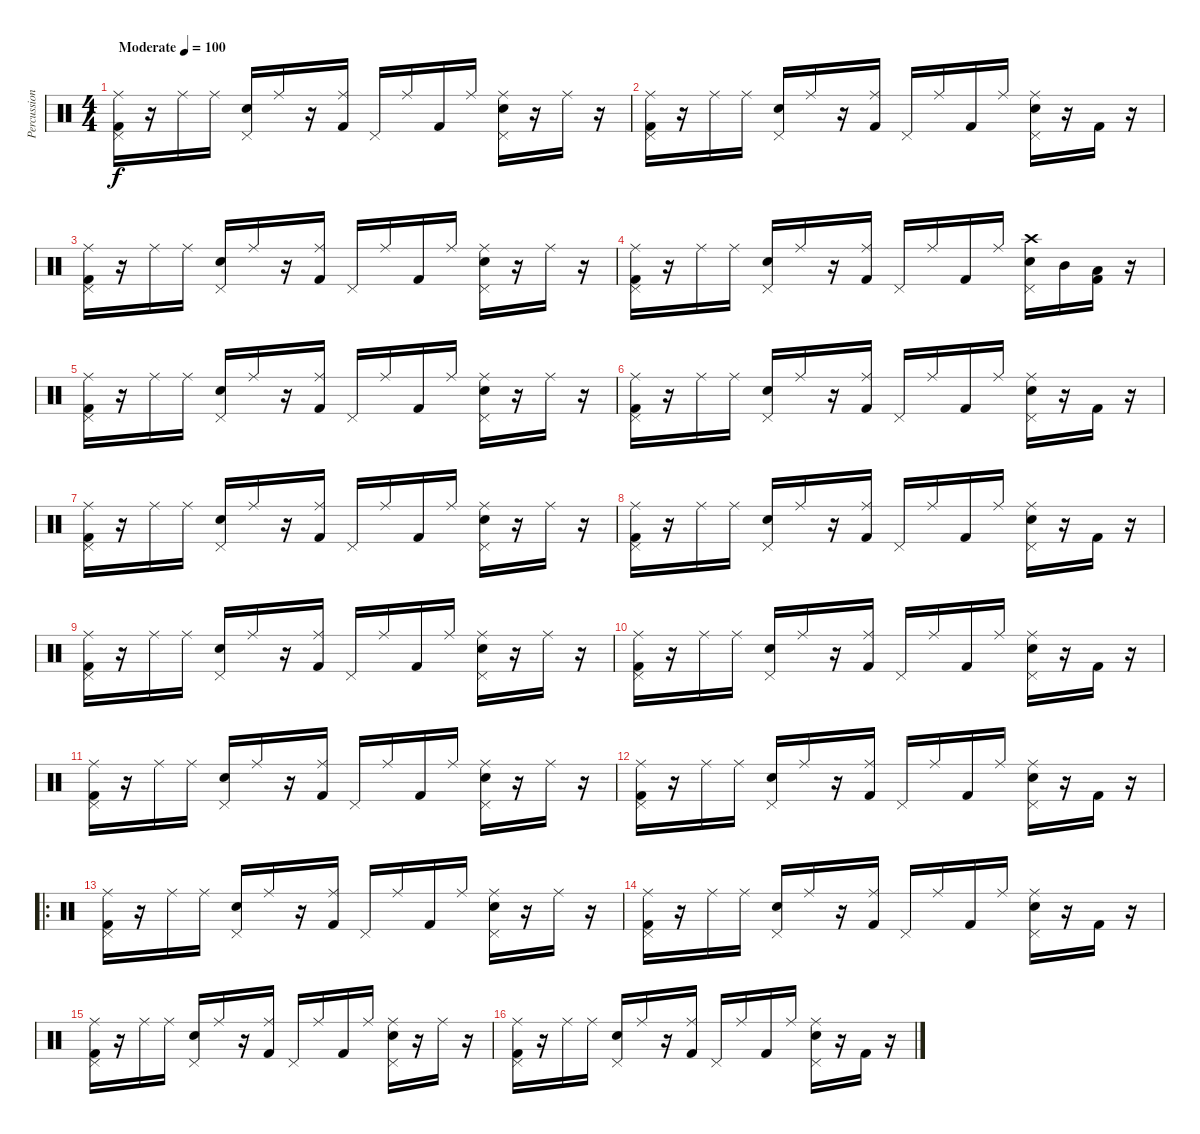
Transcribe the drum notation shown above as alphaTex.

\track ("Percussion" "Percussion") {instrument percussion}
\staff {score}
\articulation defaults
\ts (4 4)
\tempo (100 "Moderate")
\clef neutral
\ks c
("Ride (middle)" "Pedal Hi-Hat (hit)" "Kick (hit) 2").16{dy f} r.16 "Ride (middle)".16 "Ride (middle)".16 ("Electric Snare (hit)" "Pedal Hi-Hat (hit)").16 "Ride (middle)".16 r.16 ("Ride (middle)" "Kick (hit) 2").16 "Pedal Hi-Hat (hit)".16 "Ride (middle)".16 "Kick (hit) 2".16 "Ride (middle)".16 ("Ride (middle)" "Electric Snare (hit)" "Pedal Hi-Hat (hit)").16 r.16 "Ride (middle)".16 r.16 |
("Ride (middle)" "Pedal Hi-Hat (hit)" "Kick (hit) 2").16 r.16 "Ride (middle)".16 "Ride (middle)".16 ("Electric Snare (hit)" "Pedal Hi-Hat (hit)").16 "Ride (middle)".16 r.16 ("Ride (middle)" "Kick (hit) 2").16 "Pedal Hi-Hat (hit)".16 "Ride (middle)".16 "Kick (hit) 2".16 "Ride (middle)".16 ("Ride (middle)" "Electric Snare (hit)" "Pedal Hi-Hat (hit)").16 r.16 "Kick (hit) 2".16 r.16 |
("Ride (middle)" "Pedal Hi-Hat (hit)" "Kick (hit) 2").16 r.16 "Ride (middle)".16 "Ride (middle)".16 ("Electric Snare (hit)" "Pedal Hi-Hat (hit)").16 "Ride (middle)".16 r.16 ("Ride (middle)" "Kick (hit) 2").16 "Pedal Hi-Hat (hit)".16 "Ride (middle)".16 "Kick (hit) 2".16 "Ride (middle)".16 ("Ride (middle)" "Electric Snare (hit)" "Pedal Hi-Hat (hit)").16 r.16 "Ride (middle)".16 r.16 |
("Ride (middle)" "Pedal Hi-Hat (hit)" "Kick (hit) 2").16 r.16 "Ride (middle)".16 "Ride (middle)".16 ("Electric Snare (hit)" "Pedal Hi-Hat (hit)").16 "Ride (middle)".16 r.16 ("Ride (middle)" "Kick (hit) 2").16 "Pedal Hi-Hat (hit)".16 "Ride (middle)".16 "Kick (hit) 2".16 "Ride (middle)".16 ("Crash high (hit)" "Electric Snare (hit)" "Pedal Hi-Hat (hit)").16 "Mid Tom (hit)".16 ("Low Tom (hit)" "Kick (hit) 2").16 r.16 |
("Ride (middle)" "Pedal Hi-Hat (hit)" "Kick (hit) 2").16 r.16 "Ride (middle)".16 "Ride (middle)".16 ("Electric Snare (hit)" "Pedal Hi-Hat (hit)").16 "Ride (middle)".16 r.16 ("Ride (middle)" "Kick (hit) 2").16 "Pedal Hi-Hat (hit)".16 "Ride (middle)".16 "Kick (hit) 2".16 "Ride (middle)".16 ("Ride (middle)" "Electric Snare (hit)" "Pedal Hi-Hat (hit)").16 r.16 "Ride (middle)".16 r.16 |
("Ride (middle)" "Pedal Hi-Hat (hit)" "Kick (hit) 2").16 r.16 "Ride (middle)".16 "Ride (middle)".16 ("Electric Snare (hit)" "Pedal Hi-Hat (hit)").16 "Ride (middle)".16 r.16 ("Ride (middle)" "Kick (hit) 2").16 "Pedal Hi-Hat (hit)".16 "Ride (middle)".16 "Kick (hit) 2".16 "Ride (middle)".16 ("Ride (middle)" "Electric Snare (hit)" "Pedal Hi-Hat (hit)").16 r.16 "Kick (hit) 2".16 r.16 |
("Ride (middle)" "Pedal Hi-Hat (hit)" "Kick (hit) 2").16 r.16 "Ride (middle)".16 "Ride (middle)".16 ("Electric Snare (hit)" "Pedal Hi-Hat (hit)").16 "Ride (middle)".16 r.16 ("Ride (middle)" "Kick (hit) 2").16 "Pedal Hi-Hat (hit)".16 "Ride (middle)".16 "Kick (hit) 2".16 "Ride (middle)".16 ("Ride (middle)" "Electric Snare (hit)" "Pedal Hi-Hat (hit)").16 r.16 "Ride (middle)".16 r.16 |
("Ride (middle)" "Pedal Hi-Hat (hit)" "Kick (hit) 2").16 r.16 "Ride (middle)".16 "Ride (middle)".16 ("Electric Snare (hit)" "Pedal Hi-Hat (hit)").16 "Ride (middle)".16 r.16 ("Ride (middle)" "Kick (hit) 2").16 "Pedal Hi-Hat (hit)".16 "Ride (middle)".16 "Kick (hit) 2".16 "Ride (middle)".16 ("Ride (middle)" "Electric Snare (hit)" "Pedal Hi-Hat (hit)").16 r.16 "Kick (hit) 2".16 r.16 |
("Ride (middle)" "Pedal Hi-Hat (hit)" "Kick (hit) 2").16 r.16 "Ride (middle)".16 "Ride (middle)".16 ("Electric Snare (hit)" "Pedal Hi-Hat (hit)").16 "Ride (middle)".16 r.16 ("Ride (middle)" "Kick (hit) 2").16 "Pedal Hi-Hat (hit)".16 "Ride (middle)".16 "Kick (hit) 2".16 "Ride (middle)".16 ("Ride (middle)" "Electric Snare (hit)" "Pedal Hi-Hat (hit)").16 r.16 "Ride (middle)".16 r.16 |
("Ride (middle)" "Pedal Hi-Hat (hit)" "Kick (hit) 2").16 r.16 "Ride (middle)".16 "Ride (middle)".16 ("Electric Snare (hit)" "Pedal Hi-Hat (hit)").16 "Ride (middle)".16 r.16 ("Ride (middle)" "Kick (hit) 2").16 "Pedal Hi-Hat (hit)".16 "Ride (middle)".16 "Kick (hit) 2".16 "Ride (middle)".16 ("Ride (middle)" "Electric Snare (hit)" "Pedal Hi-Hat (hit)").16 r.16 "Kick (hit) 2".16 r.16 |
("Ride (middle)" "Pedal Hi-Hat (hit)" "Kick (hit) 2").16 r.16 "Ride (middle)".16 "Ride (middle)".16 ("Electric Snare (hit)" "Pedal Hi-Hat (hit)").16 "Ride (middle)".16 r.16 ("Ride (middle)" "Kick (hit) 2").16 "Pedal Hi-Hat (hit)".16 "Ride (middle)".16 "Kick (hit) 2".16 "Ride (middle)".16 ("Ride (middle)" "Electric Snare (hit)" "Pedal Hi-Hat (hit)").16 r.16 "Ride (middle)".16 r.16 |
("Ride (middle)" "Pedal Hi-Hat (hit)" "Kick (hit) 2").16 r.16 "Ride (middle)".16 "Ride (middle)".16 ("Electric Snare (hit)" "Pedal Hi-Hat (hit)").16 "Ride (middle)".16 r.16 ("Ride (middle)" "Kick (hit) 2").16 "Pedal Hi-Hat (hit)".16 "Ride (middle)".16 "Kick (hit) 2".16 "Ride (middle)".16 ("Ride (middle)" "Electric Snare (hit)" "Pedal Hi-Hat (hit)").16 r.16 "Kick (hit) 2".16 r.16 |
\ro
("Ride (middle)" "Pedal Hi-Hat (hit)" "Kick (hit) 2").16 r.16 "Ride (middle)".16 "Ride (middle)".16 ("Electric Snare (hit)" "Pedal Hi-Hat (hit)").16 "Ride (middle)".16 r.16 ("Ride (middle)" "Kick (hit) 2").16 "Pedal Hi-Hat (hit)".16 "Ride (middle)".16 "Kick (hit) 2".16 "Ride (middle)".16 ("Ride (middle)" "Electric Snare (hit)" "Pedal Hi-Hat (hit)").16 r.16 "Ride (middle)".16 r.16 |
("Ride (middle)" "Pedal Hi-Hat (hit)" "Kick (hit) 2").16 r.16 "Ride (middle)".16 "Ride (middle)".16 ("Electric Snare (hit)" "Pedal Hi-Hat (hit)").16 "Ride (middle)".16 r.16 ("Ride (middle)" "Kick (hit) 2").16 "Pedal Hi-Hat (hit)".16 "Ride (middle)".16 "Kick (hit) 2".16 "Ride (middle)".16 ("Ride (middle)" "Electric Snare (hit)" "Pedal Hi-Hat (hit)").16 r.16 "Kick (hit) 2".16 r.16 |
("Ride (middle)" "Pedal Hi-Hat (hit)" "Kick (hit) 2").16 r.16 "Ride (middle)".16 "Ride (middle)".16 ("Electric Snare (hit)" "Pedal Hi-Hat (hit)").16 "Ride (middle)".16 r.16 ("Ride (middle)" "Kick (hit) 2").16 "Pedal Hi-Hat (hit)".16 "Ride (middle)".16 "Kick (hit) 2".16 "Ride (middle)".16 ("Ride (middle)" "Electric Snare (hit)" "Pedal Hi-Hat (hit)").16 r.16 "Ride (middle)".16 r.16 |
("Ride (middle)" "Pedal Hi-Hat (hit)" "Kick (hit) 2").16 r.16 "Ride (middle)".16 "Ride (middle)".16 ("Electric Snare (hit)" "Pedal Hi-Hat (hit)").16 "Ride (middle)".16 r.16 ("Ride (middle)" "Kick (hit) 2").16 "Pedal Hi-Hat (hit)".16 "Ride (middle)".16 "Kick (hit) 2".16 "Ride (middle)".16 ("Ride (middle)" "Electric Snare (hit)" "Pedal Hi-Hat (hit)").16 r.16 "Kick (hit) 2".16 r.16
